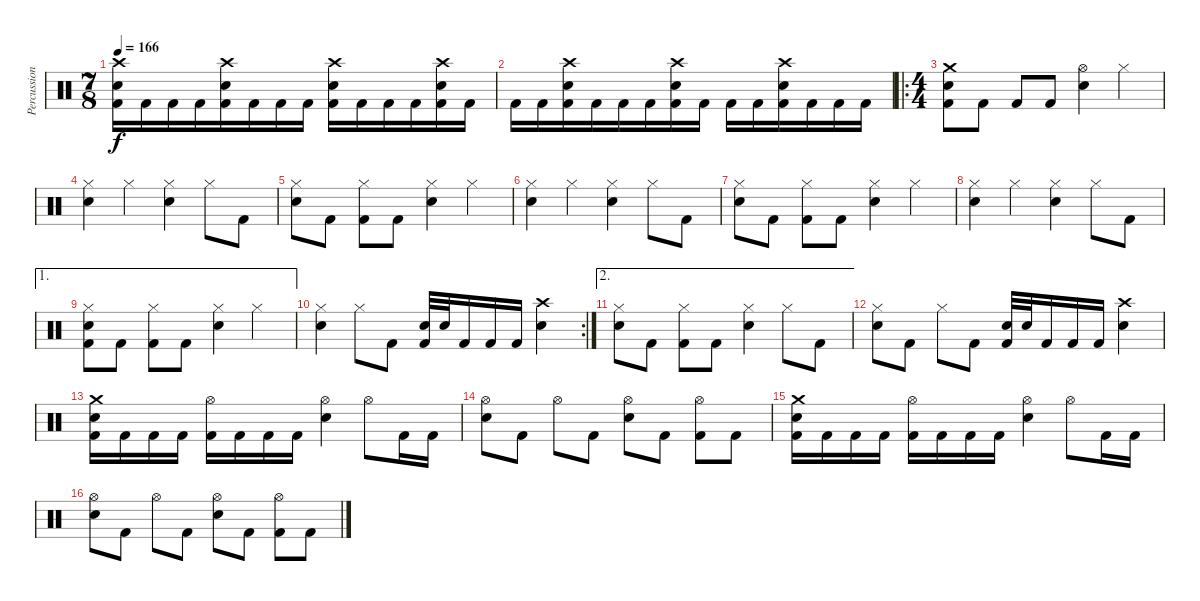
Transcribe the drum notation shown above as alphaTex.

\track ("Percussion" "Percussion") {instrument percussion}
\staff {score}
\articulation defaults
\ts (7 8)
\tempo 166
\clef neutral
\ks c
("Crash high (hit)" "Electric Snare (hit)" "Kick (hit) 2").16{dy f} "Kick (hit) 2".16 "Kick (hit) 2".16 "Kick (hit) 2".16 ("Crash high (hit)" "Electric Snare (hit)" "Kick (hit) 2").16 "Kick (hit) 2".16 "Kick (hit) 2".16 "Kick (hit) 2".16 ("Crash high (hit)" "Electric Snare (hit)" "Kick (hit) 2").16 "Kick (hit) 2".16 "Kick (hit) 2".16 "Kick (hit) 2".16 ("Crash high (hit)" "Electric Snare (hit)" "Kick (hit) 2").16 "Kick (hit) 2".16 |
"Kick (hit) 2".16 "Kick (hit) 2".16 ("Crash high (hit)" "Electric Snare (hit)" "Kick (hit) 2").16 "Kick (hit) 2".16 "Kick (hit) 2".16 "Kick (hit) 2".16 ("Crash high (hit)" "Electric Snare (hit)" "Kick (hit) 2").16 "Kick (hit) 2".16 "Kick (hit) 2".16 "Kick (hit) 2".16 ("Crash high (hit)" "Electric Snare (hit)" "Kick (hit) 2").16 "Kick (hit) 2".16 "Kick (hit) 2".16 "Kick (hit) 2".16 |
\ro
\ts (4 4)
("Crash medium (hit)" "Electric Snare (hit)" "Kick (hit) 2").8 "Kick (hit) 2".8 "Kick (hit) 2".8 "Kick (hit) 2".8 ("Hi-Hat (open)" "Electric Snare (hit)").4 "Hi-Hat (closed)".4 |
("Hi-Hat (closed)" "Electric Snare (hit)").4 "Hi-Hat (closed)".4 ("Hi-Hat (closed)" "Electric Snare (hit)").4 "Hi-Hat (closed)".8 "Kick (hit) 2".8 |
("Hi-Hat (closed)" "Electric Snare (hit)").8 "Kick (hit) 2".8 ("Hi-Hat (closed)" "Kick (hit) 2").8 "Kick (hit) 2".8 ("Hi-Hat (closed)" "Electric Snare (hit)").4 "Hi-Hat (closed)".4 |
("Hi-Hat (closed)" "Electric Snare (hit)").4 "Hi-Hat (closed)".4 ("Hi-Hat (closed)" "Electric Snare (hit)").4 "Hi-Hat (closed)".8 "Kick (hit) 2".8 |
("Hi-Hat (closed)" "Electric Snare (hit)").8 "Kick (hit) 2".8 ("Hi-Hat (closed)" "Kick (hit) 2").8 "Kick (hit) 2".8 ("Hi-Hat (closed)" "Electric Snare (hit)").4 "Hi-Hat (closed)".4 |
("Hi-Hat (closed)" "Electric Snare (hit)").4 "Hi-Hat (closed)".4 ("Hi-Hat (closed)" "Electric Snare (hit)").4 "Hi-Hat (closed)".8 "Kick (hit) 2".8 |
\ae 1
("Hi-Hat (closed)" "Electric Snare (hit)" "Kick (hit) 2").8 "Kick (hit) 2".8 ("Hi-Hat (closed)" "Kick (hit) 2").8 "Kick (hit) 2".8 ("Hi-Hat (closed)" "Electric Snare (hit)").4 "Hi-Hat (closed)".4 |
\rc 2
("Hi-Hat (closed)" "Electric Snare (hit)").4 "Hi-Hat (closed)".8 "Kick (hit) 2".8 ("Electric Snare (hit)" "Kick (hit) 2").32 "Electric Snare (hit)".32 "Kick (hit) 2".16 "Kick (hit) 2".16 "Kick (hit) 2".16 ("Crash high (hit)" "Electric Snare (hit)").4 |
\ae 2
("Hi-Hat (closed)" "Electric Snare (hit)").8 "Kick (hit) 2".8 ("Hi-Hat (closed)" "Kick (hit) 2").8 "Kick (hit) 2".8 ("Hi-Hat (closed)" "Electric Snare (hit)").4 "Hi-Hat (closed)".8 "Kick (hit) 2".8 |
("Hi-Hat (closed)" "Electric Snare (hit)").8 "Kick (hit) 2".8 "Hi-Hat (closed)".8 "Kick (hit) 2".8 ("Electric Snare (hit)" "Kick (hit) 2").32 "Electric Snare (hit)".32 "Kick (hit) 2".16 "Kick (hit) 2".16 "Kick (hit) 2".16 ("Crash high (hit)" "Electric Snare (hit)").4 |
("Crash medium (hit)" "Electric Snare (hit)" "Kick (hit) 2").16 "Kick (hit) 2".16 "Kick (hit) 2".16 "Kick (hit) 2".16 ("Hi-Hat (open)" "Kick (hit) 2").16 "Kick (hit) 2".16 "Kick (hit) 2".16 "Kick (hit) 2".16 ("Hi-Hat (open)" "Electric Snare (hit)").4 "Hi-Hat (open)".8 "Kick (hit) 2".16 "Kick (hit) 2".16 |
("Hi-Hat (open)" "Electric Snare (hit)").8 "Kick (hit) 2".8 "Hi-Hat (open)".8 "Kick (hit) 2".8 ("Hi-Hat (open)" "Electric Snare (hit)").8 "Kick (hit) 2".8 ("Hi-Hat (open)" "Kick (hit) 2").8 "Kick (hit) 2".8 |
("Crash medium (hit)" "Electric Snare (hit)" "Kick (hit) 2").16 "Kick (hit) 2".16 "Kick (hit) 2".16 "Kick (hit) 2".16 ("Hi-Hat (open)" "Kick (hit) 2").16 "Kick (hit) 2".16 "Kick (hit) 2".16 "Kick (hit) 2".16 ("Hi-Hat (open)" "Electric Snare (hit)").4 "Hi-Hat (open)".8 "Kick (hit) 2".16 "Kick (hit) 2".16 |
("Hi-Hat (open)" "Electric Snare (hit)").8 "Kick (hit) 2".8 "Hi-Hat (open)".8 "Kick (hit) 2".8 ("Hi-Hat (open)" "Electric Snare (hit)").8 "Kick (hit) 2".8 ("Hi-Hat (open)" "Kick (hit) 2").8 "Kick (hit) 2".8
